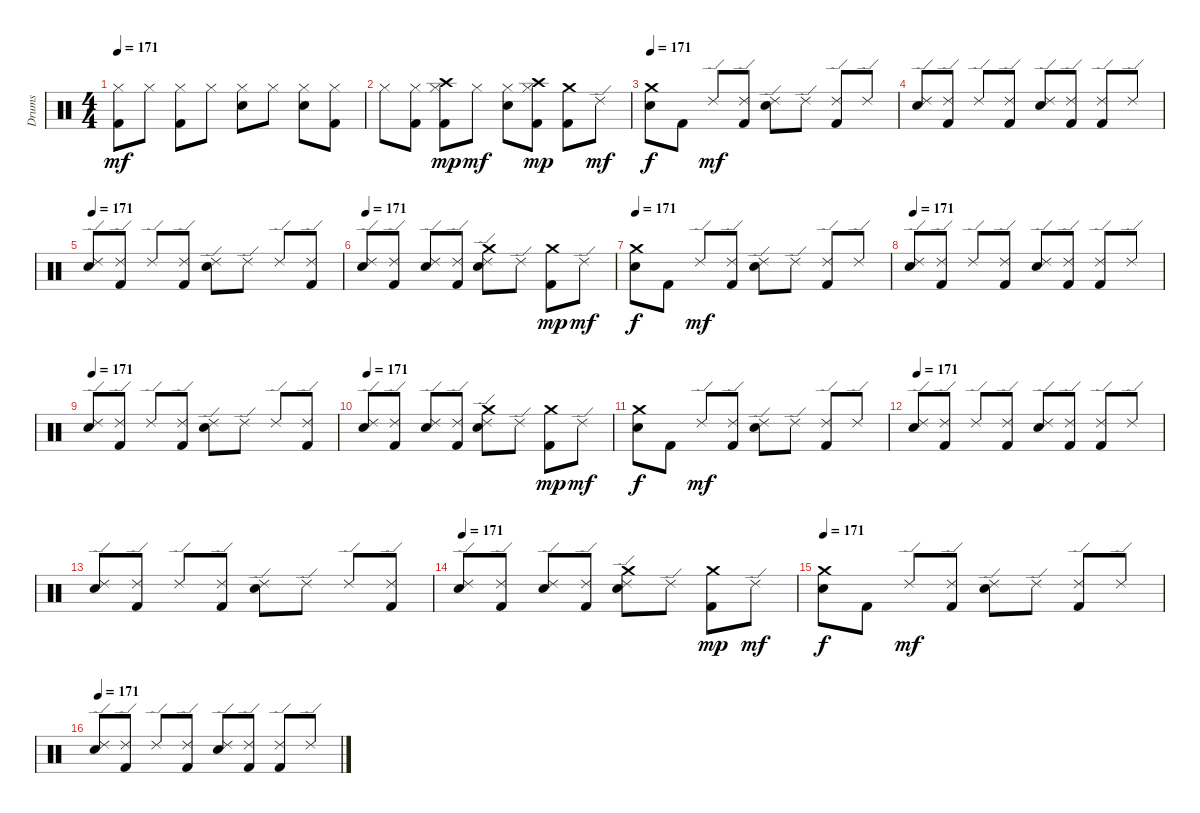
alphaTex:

\track ("Drums" "Drums") {instrument percussion}
\staff {score}
\articulation defaults
\ts (4 4)
\tempo 171
\clef neutral
\ks c
("Kick (hit) 2" "Hi-Hat (closed)").8{dy mf} "Hi-Hat (closed)".8 ("Kick (hit) 2" "Hi-Hat (closed)").8 "Hi-Hat (closed)".8 ("Electric Snare (hit)" "Hi-Hat (closed)").8 "Hi-Hat (closed)".8 ("Electric Snare (hit)" "Hi-Hat (closed)").8 ("Kick (hit) 2" "Hi-Hat (closed)").8 |
"Hi-Hat (closed)".8 ("Kick (hit) 2" "Hi-Hat (closed)").8 ("Kick (hit) 2" "Hi-Hat (closed)" "Crash high (hit)").8{dy mp} "Hi-Hat (closed)".8{dy mf} ("Electric Snare (hit)" "Hi-Hat (closed)").8 ("Kick (hit) 2" "Hi-Hat (closed)" "Crash high (hit)").8{dy mp} ("Kick (hit) 2" "Crash medium (hit)").8 "Ride (edge) 2".8{dy mf} |
\tempo 171
("Electric Snare (hit)" "Crash medium (hit)").8{dy f} "Kick (hit) 2".8 "Ride (edge) 2".8{dy mf} ("Kick (hit) 2" "Ride (edge) 2").8 ("Electric Snare (hit)" "Ride (edge) 2").8 "Ride (edge) 2".8 ("Kick (hit) 2" "Ride (edge) 2").8 "Ride (edge) 2".8 |
("Electric Snare (hit)" "Ride (edge) 2").8 ("Kick (hit) 2" "Ride (edge) 2").8 "Ride (edge) 2".8 ("Kick (hit) 2" "Ride (edge) 2").8 ("Electric Snare (hit)" "Ride (edge) 2").8 ("Kick (hit) 2" "Ride (edge) 2").8 ("Kick (hit) 2" "Ride (edge) 2").8 "Ride (edge) 2".8 |
\tempo 171
("Electric Snare (hit)" "Ride (edge) 2").8 ("Kick (hit) 2" "Ride (edge) 2").8 "Ride (edge) 2".8 ("Kick (hit) 2" "Ride (edge) 2").8 ("Electric Snare (hit)" "Ride (edge) 2").8 "Ride (edge) 2".8 "Ride (edge) 2".8 ("Kick (hit) 2" "Ride (edge) 2").8 |
\tempo 171
("Electric Snare (hit)" "Ride (edge) 2").8 ("Kick (hit) 2" "Ride (edge) 2").8 ("Electric Snare (hit)" "Ride (edge) 2").8 ("Kick (hit) 2" "Ride (edge) 2").8 ("Electric Snare (hit)" "Crash medium (hit)" "Ride (edge) 2").8 "Ride (edge) 2".8 ("Kick (hit) 2" "Crash medium (hit)").8{dy mp} "Ride (edge) 2".8{dy mf} |
\tempo 171
("Electric Snare (hit)" "Crash medium (hit)").8{dy f} "Kick (hit) 2".8 "Ride (edge) 2".8{dy mf} ("Kick (hit) 2" "Ride (edge) 2").8 ("Electric Snare (hit)" "Ride (edge) 2").8 "Ride (edge) 2".8 ("Kick (hit) 2" "Ride (edge) 2").8 "Ride (edge) 2".8 |
\tempo 171
("Electric Snare (hit)" "Ride (edge) 2").8 ("Kick (hit) 2" "Ride (edge) 2").8 "Ride (edge) 2".8 ("Kick (hit) 2" "Ride (edge) 2").8 ("Electric Snare (hit)" "Ride (edge) 2").8 ("Kick (hit) 2" "Ride (edge) 2").8 ("Kick (hit) 2" "Ride (edge) 2").8 "Ride (edge) 2".8 |
\tempo 171
("Electric Snare (hit)" "Ride (edge) 2").8 ("Kick (hit) 2" "Ride (edge) 2").8 "Ride (edge) 2".8 ("Kick (hit) 2" "Ride (edge) 2").8 ("Electric Snare (hit)" "Ride (edge) 2").8 "Ride (edge) 2".8 "Ride (edge) 2".8 ("Kick (hit) 2" "Ride (edge) 2").8 |
\tempo 171
("Electric Snare (hit)" "Ride (edge) 2").8 ("Kick (hit) 2" "Ride (edge) 2").8 ("Electric Snare (hit)" "Ride (edge) 2").8 ("Kick (hit) 2" "Ride (edge) 2").8 ("Electric Snare (hit)" "Crash medium (hit)" "Ride (edge) 2").8 "Ride (edge) 2".8 ("Kick (hit) 2" "Crash medium (hit)").8{dy mp} "Ride (edge) 2".8{dy mf} |
("Electric Snare (hit)" "Crash medium (hit)").8{dy f} "Kick (hit) 2".8 "Ride (edge) 2".8{dy mf} ("Kick (hit) 2" "Ride (edge) 2").8 ("Electric Snare (hit)" "Ride (edge) 2").8 "Ride (edge) 2".8 ("Kick (hit) 2" "Ride (edge) 2").8 "Ride (edge) 2".8 |
\tempo 171
("Electric Snare (hit)" "Ride (edge) 2").8 ("Kick (hit) 2" "Ride (edge) 2").8 "Ride (edge) 2".8 ("Kick (hit) 2" "Ride (edge) 2").8 ("Electric Snare (hit)" "Ride (edge) 2").8 ("Kick (hit) 2" "Ride (edge) 2").8 ("Kick (hit) 2" "Ride (edge) 2").8 "Ride (edge) 2".8 |
("Electric Snare (hit)" "Ride (edge) 2").8 ("Kick (hit) 2" "Ride (edge) 2").8 "Ride (edge) 2".8 ("Kick (hit) 2" "Ride (edge) 2").8 ("Electric Snare (hit)" "Ride (edge) 2").8 "Ride (edge) 2".8 "Ride (edge) 2".8 ("Kick (hit) 2" "Ride (edge) 2").8 |
\tempo 171
("Electric Snare (hit)" "Ride (edge) 2").8 ("Kick (hit) 2" "Ride (edge) 2").8 ("Electric Snare (hit)" "Ride (edge) 2").8 ("Kick (hit) 2" "Ride (edge) 2").8 ("Electric Snare (hit)" "Crash medium (hit)" "Ride (edge) 2").8 "Ride (edge) 2".8 ("Kick (hit) 2" "Crash medium (hit)").8{dy mp} "Ride (edge) 2".8{dy mf} |
\tempo 171
("Electric Snare (hit)" "Crash medium (hit)").8{dy f} "Kick (hit) 2".8 "Ride (edge) 2".8{dy mf} ("Kick (hit) 2" "Ride (edge) 2").8 ("Electric Snare (hit)" "Ride (edge) 2").8 "Ride (edge) 2".8 ("Kick (hit) 2" "Ride (edge) 2").8 "Ride (edge) 2".8 |
\tempo 171
("Electric Snare (hit)" "Ride (edge) 2").8 ("Kick (hit) 2" "Ride (edge) 2").8 "Ride (edge) 2".8 ("Kick (hit) 2" "Ride (edge) 2").8 ("Electric Snare (hit)" "Ride (edge) 2").8 ("Kick (hit) 2" "Ride (edge) 2").8 ("Kick (hit) 2" "Ride (edge) 2").8 "Ride (edge) 2".8
